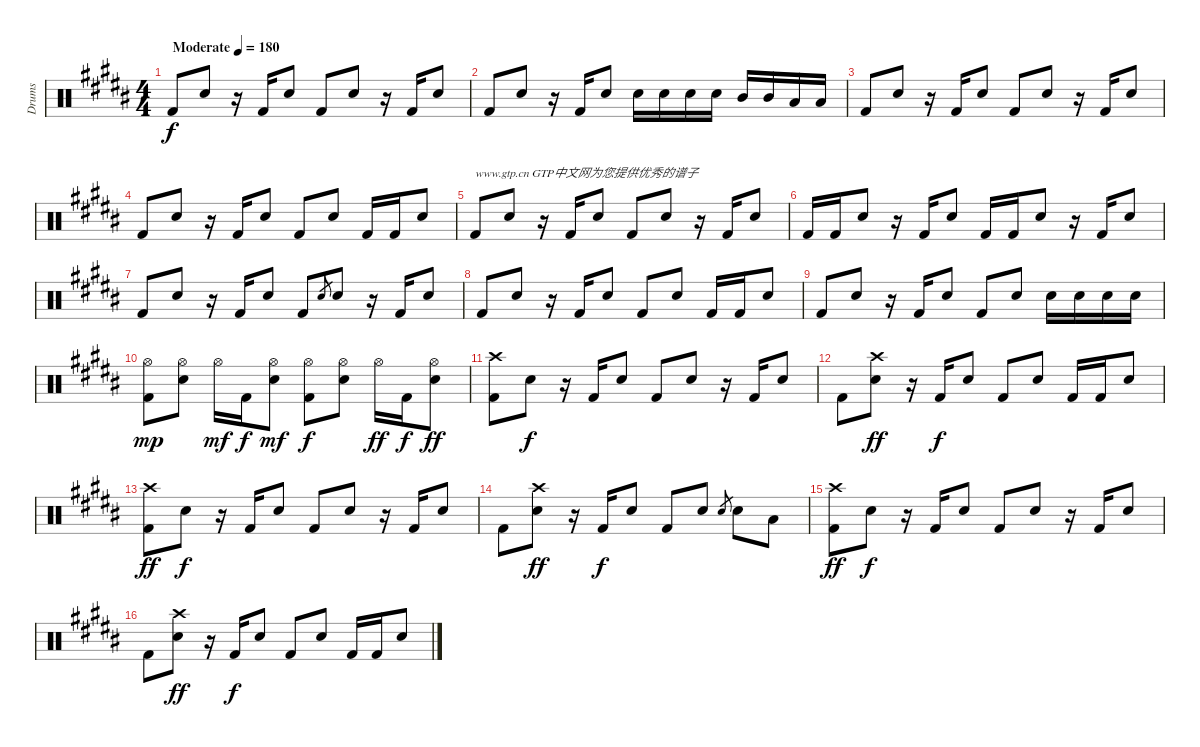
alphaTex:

\track ("Drums" "Drums") {instrument percussion}
\staff {score}
\articulation defaults
\ts (4 4)
\tempo (180 "Moderate")
\clef neutral
\ks g#minor "Kick (hit) 2".8{dy f} "Snare (hit) 2".8
r.16 "Kick (hit) 2".16 "Snare (hit) 2".8 "Kick (hit) 2".8 "Snare (hit) 2".8 r.16 "Kick (hit) 2".16 "Snare (hit) 2".8 |
"Kick (hit) 2".8 "Snare (hit) 2".8 r.16 "Kick (hit) 2".16 "Snare (hit) 2".8 "Snare (hit) 2".16 "Snare (hit) 2".16 "Snare (hit) 2".16 "Snare (hit) 2".16 "Mid Tom (hit)".16 "Mid Tom (hit)".16 "Low Tom (hit)".16 "Low Tom (hit)".16 |
"Kick (hit) 2".8 "Snare (hit) 2".8 r.16 "Kick (hit) 2".16 "Snare (hit) 2".8 "Kick (hit) 2".8 "Snare (hit) 2".8 r.16 "Kick (hit) 2".16 "Snare (hit) 2".8 |
"Kick (hit) 2".8 "Snare (hit) 2".8 r.16 "Kick (hit) 2".16 "Snare (hit) 2".8 "Kick (hit) 2".8 "Snare (hit) 2".8 "Kick (hit) 2".16 "Kick (hit) 2".16 "Snare (hit) 2".8 |
"Kick (hit) 2".8{txt "www.gtp.cn GTP中文网为您提供优秀的谱子"} "Snare (hit) 2".8 r.16 "Kick (hit) 2".16 "Snare (hit) 2".8 "Kick (hit) 2".8 "Snare (hit) 2".8 r.16 "Kick (hit) 2".16 "Snare (hit) 2".8 |
"Kick (hit) 2".16 "Kick (hit) 2".16 "Snare (hit) 2".8 r.16 "Kick (hit) 2".16 "Snare (hit) 2".8 "Kick (hit) 2".16 "Kick (hit) 2".16 "Snare (hit) 2".8 r.16 "Kick (hit) 2".16 "Snare (hit) 2".8 |
"Kick (hit) 2".8 "Snare (hit) 2".8 r.16 "Kick (hit) 2".16 "Snare (hit) 2".8 "Kick (hit) 2".8 "Snare (hit) 2".8{gr} "Snare (hit) 2".8 r.16 "Kick (hit) 2".16 "Snare (hit) 2".8 |
"Kick (hit) 2".8 "Snare (hit) 2".8 r.16 "Kick (hit) 2".16 "Snare (hit) 2".8 "Kick (hit) 2".8 "Snare (hit) 2".8 "Kick (hit) 2".16 "Kick (hit) 2".16 "Snare (hit) 2".8 |
"Kick (hit) 2".8 "Snare (hit) 2".8 r.16 "Kick (hit) 2".16 "Snare (hit) 2".8 "Kick (hit) 2".8 "Snare (hit) 2".8 "Snare (hit) 2".16 "Snare (hit) 2".16 "Snare (hit) 2".16 "Snare (hit) 2".16 |
("Kick (hit) 2" "Hi-Hat (open)").8{dy mp} ("Snare (hit) 2" "Hi-Hat (open)").8 "Hi-Hat (open)".16{dy mf} "Kick (hit) 2".16{dy f} ("Snare (hit) 2" "Hi-Hat (open)").8{dy mf} ("Kick (hit) 2" "Hi-Hat (open)").8{dy f} ("Snare (hit) 2" "Hi-Hat (open)").8 "Hi-Hat (open)".16{dy ff} "Kick (hit) 2".16{dy f} ("Snare (hit) 2" "Hi-Hat (open)").8{dy ff} |
("Kick (hit) 2" "Crash high (hit)").8 "Snare (hit) 2".8{dy f} r.16 "Kick (hit) 2".16 "Snare (hit) 2".8 "Kick (hit) 2".8 "Snare (hit) 2".8 r.16 "Kick (hit) 2".16 "Snare (hit) 2".8 |
"Kick (hit) 2".8 ("Snare (hit) 2" "Crash high (hit)").8{dy ff} r.16 "Kick (hit) 2".16{dy f} "Snare (hit) 2".8 "Kick (hit) 2".8 "Snare (hit) 2".8 "Kick (hit) 2".16 "Kick (hit) 2".16 "Snare (hit) 2".8 |
("Kick (hit) 2" "Crash high (hit)").8{dy ff} "Snare (hit) 2".8{dy f} r.16 "Kick (hit) 2".16 "Snare (hit) 2".8 "Kick (hit) 2".8 "Snare (hit) 2".8 r.16 "Kick (hit) 2".16 "Snare (hit) 2".8 |
"Kick (hit) 2".8 ("Snare (hit) 2" "Crash high (hit)").8{dy ff} r.16 "Kick (hit) 2".16{dy f} "Snare (hit) 2".8 "Kick (hit) 2".8 "Snare (hit) 2".8 "Snare (hit) 2".8{gr} "Snare (hit) 2".8 "Low Tom (hit)".8 |
("Kick (hit) 2" "Crash high (hit)").8{dy ff} "Snare (hit) 2".8{dy f} r.16 "Kick (hit) 2".16 "Snare (hit) 2".8 "Kick (hit) 2".8 "Snare (hit) 2".8 r.16 "Kick (hit) 2".16 "Snare (hit) 2".8 |
"Kick (hit) 2".8 ("Snare (hit) 2" "Crash high (hit)").8{dy ff} r.16 "Kick (hit) 2".16{dy f} "Snare (hit) 2".8 "Kick (hit) 2".8 "Snare (hit) 2".8 "Kick (hit) 2".16 "Kick (hit) 2".16 "Snare (hit) 2".8
